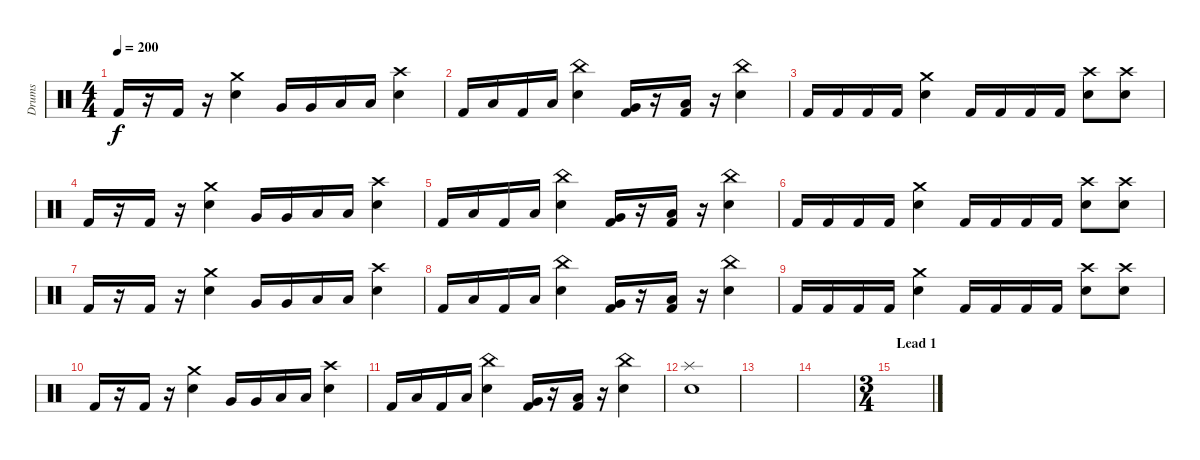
\track ("Drums" "Drums") {instrument percussion}
\staff {score}
\articulation defaults
\ts (4 4)
\tempo 200
\clef neutral
\ks c "Kick (hit) 2".16{dy f}
r.16 "Kick (hit) 2".16 r.16 ("Crash medium (hit)" "Electric Snare (hit)").4 "Very Low Tom (hit)".16 "Very Low Tom (hit)".16 "Low Floor Tom (hit)".16 "Low Floor Tom (hit)".16 ("Crash high (hit)" "Electric Snare (hit)").4 |
"Kick (hit) 2".16 "Low Floor Tom (hit)".16 "Kick (hit) 2".16 "Low Floor Tom (hit)".16 ("China (hit)" "Electric Snare (hit)").4 ("Very Low Tom (hit)" "Kick (hit) 2").16 r.16 ("Low Floor Tom (hit)" "Kick (hit) 2").16 r.16 ("China (hit)" "Electric Snare (hit)").4 |
"Kick (hit) 2".16 "Kick (hit) 2".16 "Kick (hit) 2".16 "Kick (hit) 2".16 ("Crash medium (hit)" "Electric Snare (hit)").4 "Kick (hit) 2".16 "Kick (hit) 2".16 "Kick (hit) 2".16 "Kick (hit) 2".16 ("Crash high (hit)" "Electric Snare (hit)").8 ("Crash high (hit)" "Electric Snare (hit)").8 |
"Kick (hit) 2".16 r.16 "Kick (hit) 2".16 r.16 ("Crash medium (hit)" "Electric Snare (hit)").4 "Very Low Tom (hit)".16 "Very Low Tom (hit)".16 "Low Floor Tom (hit)".16 "Low Floor Tom (hit)".16 ("Crash high (hit)" "Electric Snare (hit)").4 |
"Kick (hit) 2".16 "Low Floor Tom (hit)".16 "Kick (hit) 2".16 "Low Floor Tom (hit)".16 ("China (hit)" "Electric Snare (hit)").4 ("Very Low Tom (hit)" "Kick (hit) 2").16 r.16 ("Low Floor Tom (hit)" "Kick (hit) 2").16 r.16 ("China (hit)" "Electric Snare (hit)").4 |
"Kick (hit) 2".16 "Kick (hit) 2".16 "Kick (hit) 2".16 "Kick (hit) 2".16 ("Crash medium (hit)" "Electric Snare (hit)").4 "Kick (hit) 2".16 "Kick (hit) 2".16 "Kick (hit) 2".16 "Kick (hit) 2".16 ("Crash high (hit)" "Electric Snare (hit)").8 ("Crash high (hit)" "Electric Snare (hit)").8 |
"Kick (hit) 2".16 r.16 "Kick (hit) 2".16 r.16 ("Crash medium (hit)" "Electric Snare (hit)").4 "Very Low Tom (hit)".16 "Very Low Tom (hit)".16 "Low Floor Tom (hit)".16 "Low Floor Tom (hit)".16 ("Crash high (hit)" "Electric Snare (hit)").4 |
"Kick (hit) 2".16 "Low Floor Tom (hit)".16 "Kick (hit) 2".16 "Low Floor Tom (hit)".16 ("China (hit)" "Electric Snare (hit)").4 ("Very Low Tom (hit)" "Kick (hit) 2").16 r.16 ("Low Floor Tom (hit)" "Kick (hit) 2").16 r.16 ("China (hit)" "Electric Snare (hit)").4 |
"Kick (hit) 2".16 "Kick (hit) 2".16 "Kick (hit) 2".16 "Kick (hit) 2".16 ("Crash medium (hit)" "Electric Snare (hit)").4 "Kick (hit) 2".16 "Kick (hit) 2".16 "Kick (hit) 2".16 "Kick (hit) 2".16 ("Crash high (hit)" "Electric Snare (hit)").8 ("Crash high (hit)" "Electric Snare (hit)").8 |
"Kick (hit) 2".16 r.16 "Kick (hit) 2".16 r.16 ("Crash medium (hit)" "Electric Snare (hit)").4 "Very Low Tom (hit)".16 "Very Low Tom (hit)".16 "Low Floor Tom (hit)".16 "Low Floor Tom (hit)".16 ("Crash high (hit)" "Electric Snare (hit)").4 |
"Kick (hit) 2".16 "Low Floor Tom (hit)".16 "Kick (hit) 2".16 "Low Floor Tom (hit)".16 ("China (hit)" "Electric Snare (hit)").4 ("Very Low Tom (hit)" "Kick (hit) 2").16 r.16 ("Low Floor Tom (hit)" "Kick (hit) 2").16 r.16 ("China (hit)" "Electric Snare (hit)").4 |
("Splash (hit)" "Electric Snare (hit)").1 |
|
|
\ts (3 4)
\section ("" "Lead 1")
